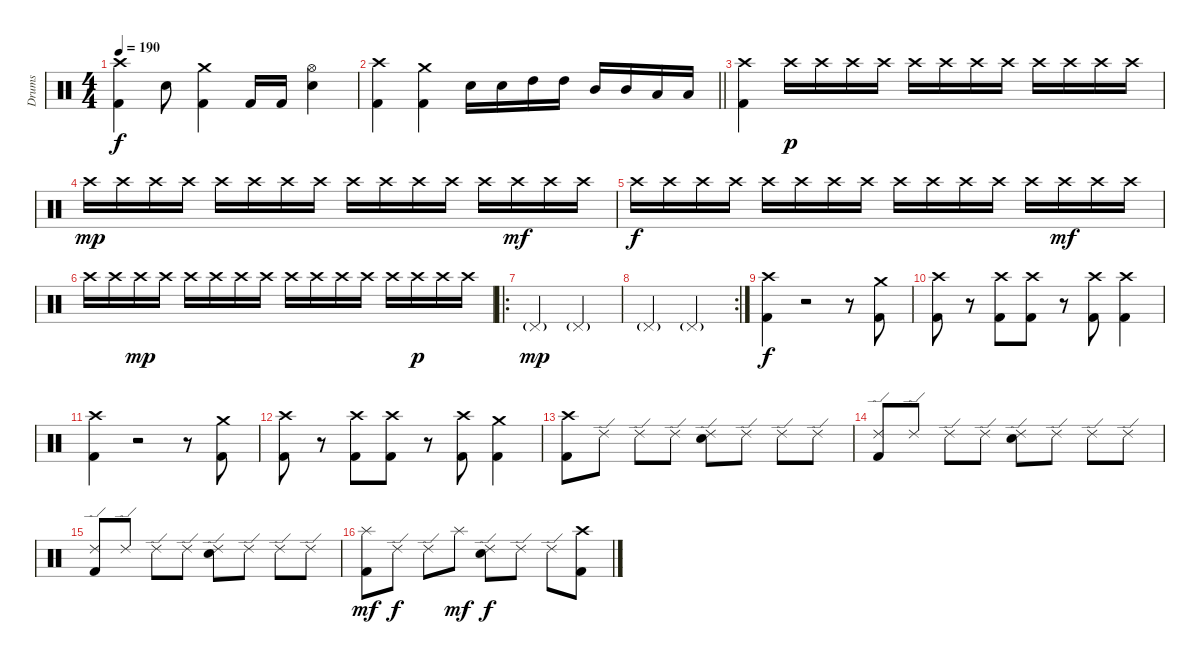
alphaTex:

\track ("Drums" "Drums") {instrument percussion}
\staff {score}
\articulation defaults
\ts (4 4)
\tempo 190
\clef neutral
\ks c
("Crash high (hit)" "Kick (hit) 2").4{dy f} "Electric Snare (hit)".8 ("Crash medium (hit)" "Kick (hit) 2").4 "Kick (hit) 2".16 "Kick (hit) 2".16 ("Hi-Hat (open)" "Electric Snare (hit)").4 |
\barLineRight lightlight
("Crash high (hit)" "Kick (hit) 2").4 ("Crash medium (hit)" "Kick (hit) 2").4 "Electric Snare (hit)".16 "Electric Snare (hit)".16 "High Tom (hit)".16 "High Tom (hit)".16 "Mid Tom (hit)".16 "Mid Tom (hit)".16 "Low Tom (hit)".16 "Low Tom (hit)".16 |
("Crash high (hit)" "Kick (hit) 2").4 "Crash high (hit)".16{dy p} "Crash high (hit)".16 "Crash high (hit)".16 "Crash high (hit)".16 "Crash high (hit)".16 "Crash high (hit)".16 "Crash high (hit)".16 "Crash high (hit)".16 "Crash high (hit)".16 "Crash high (hit)".16 "Crash high (hit)".16 "Crash high (hit)".16 |
"Crash high (hit)".16{dy mp} "Crash high (hit)".16 "Crash high (hit)".16 "Crash high (hit)".16 "Crash high (hit)".16 "Crash high (hit)".16 "Crash high (hit)".16 "Crash high (hit)".16 "Crash high (hit)".16 "Crash high (hit)".16 "Crash high (hit)".16 "Crash high (hit)".16 "Crash high (hit)".16 "Crash high (hit)".16{dy mf} "Crash high (hit)".16 "Crash high (hit)".16 |
"Crash high (hit)".16{dy f} "Crash high (hit)".16 "Crash high (hit)".16 "Crash high (hit)".16 "Crash high (hit)".16 "Crash high (hit)".16 "Crash high (hit)".16 "Crash high (hit)".16 "Crash high (hit)".16 "Crash high (hit)".16 "Crash high (hit)".16 "Crash high (hit)".16 "Crash high (hit)".16 "Crash high (hit)".16{dy mf} "Crash high (hit)".16 "Crash high (hit)".16 |
"Crash high (hit)".16 "Crash high (hit)".16 "Crash high (hit)".16{dy mp} "Crash high (hit)".16 "Crash high (hit)".16 "Crash high (hit)".16 "Crash high (hit)".16 "Crash high (hit)".16 "Crash high (hit)".16 "Crash high (hit)".16 "Crash high (hit)".16 "Crash high (hit)".16 "Crash high (hit)".16 "Crash high (hit)".16{dy p} "Crash high (hit)".16 "Crash high (hit)".16 |
\ro "Pedal Hi-Hat (hit)"{g}.2{dy mp} "Pedal Hi-Hat (hit)"{g}.2
|
\rc 2 "Pedal Hi-Hat (hit)"{g}.2 "Pedal Hi-Hat (hit)"{g}.2
|
("Crash high (hit)" "Kick (hit) 2").4{dy f} r.2{volume 0} r.8 ("Crash medium (hit)" "Kick (hit) 2").8{volume 14} |
("Crash high (hit)" "Kick (hit) 2").8 r.8{volume 0} ("Crash high (hit)" "Kick (hit) 2").8{volume 14} ("Crash high (hit)" "Kick (hit) 2").8 r.8{volume 0} ("Crash high (hit)" "Kick (hit) 2").8{volume 14} ("Crash high (hit)" "Kick (hit) 2").4 |
("Crash high (hit)" "Kick (hit) 2").4 r.2{volume 0} r.8 ("Crash medium (hit)" "Kick (hit) 2").8{volume 14} |
("Crash high (hit)" "Kick (hit) 2").8 r.8{volume 0} ("Crash high (hit)" "Kick (hit) 2").8{volume 14} ("Crash high (hit)" "Kick (hit) 2").8 r.8{volume 0} ("Crash high (hit)" "Kick (hit) 2").8{volume 14} ("Crash medium (hit)" "Kick (hit) 2").4 |
("Crash high (hit)" "Kick (hit) 2").8 "Ride (edge) 2".8 "Ride (edge) 2".8 "Ride (edge) 2".8 ("Ride (edge) 2" "Electric Snare (hit)").8 "Ride (edge) 2".8 "Ride (edge) 2".8 "Ride (edge) 2".8 |
("Ride (edge) 2" "Kick (hit) 2").8 "Ride (edge) 2".8 "Ride (edge) 2".8 "Ride (edge) 2".8 ("Ride (edge) 2" "Electric Snare (hit)").8 "Ride (edge) 2".8 "Ride (edge) 2".8 "Ride (edge) 2".8 |
("Ride (edge) 2" "Kick (hit) 2").8 "Ride (edge) 2".8 "Ride (edge) 2".8 "Ride (edge) 2".8 ("Ride (edge) 2" "Electric Snare (hit)").8 "Ride (edge) 2".8 "Ride (edge) 2".8 "Ride (edge) 2".8 |
("Splash (hit)" "Kick (hit) 2").8{dy mf} "Ride (edge) 2".8{dy f} "Ride (edge) 2".8 "Splash (hit)".8{dy mf} ("Ride (edge) 2" "Electric Snare (hit)").8{dy f} "Ride (edge) 2".8 "Ride (edge) 2".8 ("Crash high (hit)" "Kick (hit) 2").8
